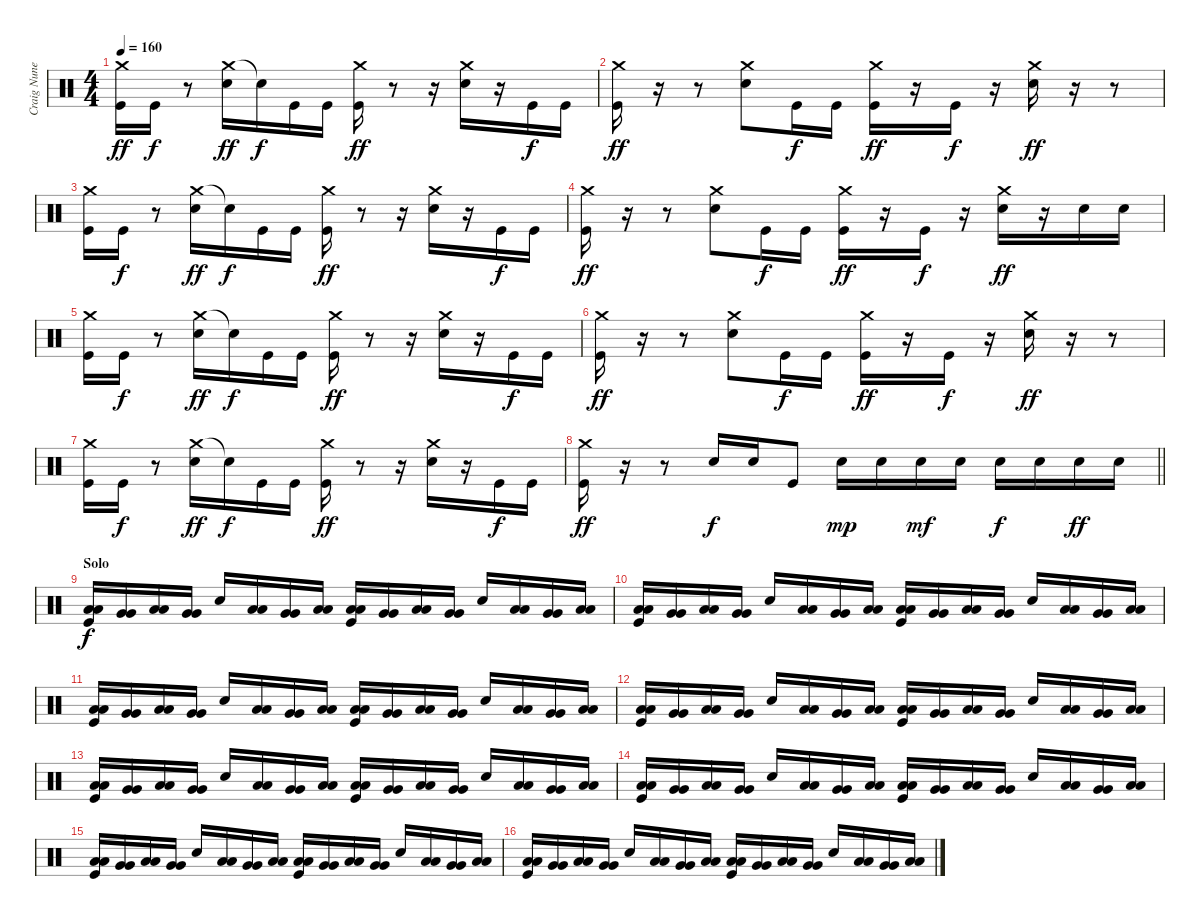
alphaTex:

\track ("Craig Nunenmacher" "Craig Nune") {instrument percussion}
\staff {score}
\articulation defaults
\ts (4 4)
\tempo 160
\clef neutral
\ks c
("Crash medium (hit)" "Kick (hit)").16{dy ff} "Kick (hit)".16{dy f} r.8 ("Crash medium (hit)" "Snare (hit) 2").16{dy ff} "Snare (hit)"{t}.16{dy f} "Kick (hit)".16 "Kick (hit)".16 ("Crash medium (hit)" "Kick (hit)").16{dy ff} r.8 r.16 ("Crash medium (hit)" "Snare (hit) 2").16 r.16 "Kick (hit)".16{dy f} "Kick (hit)".16 |
("Crash medium (hit)" "Kick (hit)").16{dy ff} r.16 r.8 ("Crash medium (hit)" "Snare (hit) 2").8 "Kick (hit)".16{dy f} "Kick (hit)".16 ("Crash medium (hit)" "Kick (hit)").16{dy ff} r.16 "Kick (hit)".16{dy f} r.16 ("Crash medium (hit)" "Snare (hit) 2").16{dy ff} r.16 r.8 |
("Crash medium (hit)" "Kick (hit)").16 "Kick (hit)".16{dy f} r.8 ("Crash medium (hit)" "Snare (hit) 2").16{dy ff} "Snare (hit)"{t}.16{dy f} "Kick (hit)".16 "Kick (hit)".16 ("Crash medium (hit)" "Kick (hit)").16{dy ff} r.8 r.16 ("Crash medium (hit)" "Snare (hit) 2").16 r.16 "Kick (hit)".16{dy f} "Kick (hit)".16 |
("Crash medium (hit)" "Kick (hit)").16{dy ff} r.16 r.8 ("Crash medium (hit)" "Snare (hit) 2").8 "Kick (hit)".16{dy f} "Kick (hit)".16 ("Crash medium (hit)" "Kick (hit)").16{dy ff} r.16 "Kick (hit)".16{dy f} r.16 ("Crash medium (hit)" "Snare (hit) 2").16{dy ff} r.16 "Snare (hit) 2".16 "Snare (hit) 2".16 |
("Crash medium (hit)" "Kick (hit)").16 "Kick (hit)".16{dy f} r.8 ("Crash medium (hit)" "Snare (hit) 2").16{dy ff} "Snare (hit)"{t}.16{dy f} "Kick (hit)".16 "Kick (hit)".16 ("Crash medium (hit)" "Kick (hit)").16{dy ff} r.8 r.16 ("Crash medium (hit)" "Snare (hit) 2").16 r.16 "Kick (hit)".16{dy f} "Kick (hit)".16 |
("Crash medium (hit)" "Kick (hit)").16{dy ff} r.16 r.8 ("Crash medium (hit)" "Snare (hit) 2").8 "Kick (hit)".16{dy f} "Kick (hit)".16 ("Crash medium (hit)" "Kick (hit)").16{dy ff} r.16 "Kick (hit)".16{dy f} r.16 ("Crash medium (hit)" "Snare (hit) 2").16{dy ff} r.16 r.8 |
("Crash medium (hit)" "Kick (hit)").16 "Kick (hit)".16{dy f} r.8 ("Crash medium (hit)" "Snare (hit) 2").16{dy ff} "Snare (hit)"{t}.16{dy f} "Kick (hit)".16 "Kick (hit)".16 ("Crash medium (hit)" "Kick (hit)").16{dy ff} r.8 r.16 ("Crash medium (hit)" "Snare (hit) 2").16 r.16 "Kick (hit)".16{dy f} "Kick (hit)".16 |
\barLineRight lightlight
("Crash medium (hit)" "Kick (hit)").16{dy ff} r.16 r.8 "Snare (hit) 2".16{dy f} "Snare (hit) 2".16 "Kick (hit)".8 "Snare (hit) 2".16{dy mp} "Snare (hit) 2".16 "Snare (hit) 2".16{dy mf} "Snare (hit) 2".16 "Snare (hit) 2".16{dy f} "Snare (hit) 2".16 "Snare (hit) 2".16{dy ff} "Snare (hit) 2".16 |
\section ("" "Solo")
("Low Tom (hit)" "Low Tom (hit)" "Kick (hit)").16{dy f} ("Very Low Tom (hit)" "Very Low Tom (hit)").16 ("Low Tom (hit)" "Low Tom (hit)").16 ("Very Low Tom (hit)" "Very Low Tom (hit)").16 "Snare (hit) 2".16 ("Low Tom (hit)" "Low Tom (hit)").16 ("Very Low Tom (hit)" "Very Low Tom (hit)").16 ("Low Tom (hit)" "Low Tom (hit)").16 ("Low Tom (hit)" "Low Tom (hit)" "Kick (hit)").16 ("Very Low Tom (hit)" "Very Low Tom (hit)").16 ("Low Tom (hit)" "Low Tom (hit)").16 ("Very Low Tom (hit)" "Very Low Tom (hit)").16 "Snare (hit) 2".16 ("Low Tom (hit)" "Low Tom (hit)").16 ("Very Low Tom (hit)" "Very Low Tom (hit)").16 ("Low Tom (hit)" "Low Tom (hit)").16 |
("Low Tom (hit)" "Low Tom (hit)" "Kick (hit)").16 ("Very Low Tom (hit)" "Very Low Tom (hit)").16 ("Low Tom (hit)" "Low Tom (hit)").16 ("Very Low Tom (hit)" "Very Low Tom (hit)").16 "Snare (hit) 2".16 ("Low Tom (hit)" "Low Tom (hit)").16 ("Very Low Tom (hit)" "Very Low Tom (hit)").16 ("Low Tom (hit)" "Low Tom (hit)").16 ("Low Tom (hit)" "Low Tom (hit)" "Kick (hit)").16 ("Very Low Tom (hit)" "Very Low Tom (hit)").16 ("Low Tom (hit)" "Low Tom (hit)").16 ("Very Low Tom (hit)" "Very Low Tom (hit)").16 "Snare (hit) 2".16 ("Low Tom (hit)" "Low Tom (hit)").16 ("Very Low Tom (hit)" "Very Low Tom (hit)").16 ("Low Tom (hit)" "Low Tom (hit)").16 |
("Low Tom (hit)" "Low Tom (hit)" "Kick (hit)").16 ("Very Low Tom (hit)" "Very Low Tom (hit)").16 ("Low Tom (hit)" "Low Tom (hit)").16 ("Very Low Tom (hit)" "Very Low Tom (hit)").16 "Snare (hit) 2".16 ("Low Tom (hit)" "Low Tom (hit)").16 ("Very Low Tom (hit)" "Very Low Tom (hit)").16 ("Low Tom (hit)" "Low Tom (hit)").16 ("Low Tom (hit)" "Low Tom (hit)" "Kick (hit)").16 ("Very Low Tom (hit)" "Very Low Tom (hit)").16 ("Low Tom (hit)" "Low Tom (hit)").16 ("Very Low Tom (hit)" "Very Low Tom (hit)").16 "Snare (hit) 2".16 ("Low Tom (hit)" "Low Tom (hit)").16 ("Very Low Tom (hit)" "Very Low Tom (hit)").16 ("Low Tom (hit)" "Low Tom (hit)").16 |
("Low Tom (hit)" "Low Tom (hit)" "Kick (hit)").16 ("Very Low Tom (hit)" "Very Low Tom (hit)").16 ("Low Tom (hit)" "Low Tom (hit)").16 ("Very Low Tom (hit)" "Very Low Tom (hit)").16 "Snare (hit) 2".16 ("Low Tom (hit)" "Low Tom (hit)").16 ("Very Low Tom (hit)" "Very Low Tom (hit)").16 ("Low Tom (hit)" "Low Tom (hit)").16 ("Low Tom (hit)" "Low Tom (hit)" "Kick (hit)").16 ("Very Low Tom (hit)" "Very Low Tom (hit)").16 ("Low Tom (hit)" "Low Tom (hit)").16 ("Very Low Tom (hit)" "Very Low Tom (hit)").16 "Snare (hit) 2".16 ("Low Tom (hit)" "Low Tom (hit)").16 ("Very Low Tom (hit)" "Very Low Tom (hit)").16 ("Low Tom (hit)" "Low Tom (hit)").16 |
("Low Tom (hit)" "Low Tom (hit)" "Kick (hit)").16 ("Very Low Tom (hit)" "Very Low Tom (hit)").16 ("Low Tom (hit)" "Low Tom (hit)").16 ("Very Low Tom (hit)" "Very Low Tom (hit)").16 "Snare (hit) 2".16 ("Low Tom (hit)" "Low Tom (hit)").16 ("Very Low Tom (hit)" "Very Low Tom (hit)").16 ("Low Tom (hit)" "Low Tom (hit)").16 ("Low Tom (hit)" "Low Tom (hit)" "Kick (hit)").16 ("Very Low Tom (hit)" "Very Low Tom (hit)").16 ("Low Tom (hit)" "Low Tom (hit)").16 ("Very Low Tom (hit)" "Very Low Tom (hit)").16 "Snare (hit) 2".16 ("Low Tom (hit)" "Low Tom (hit)").16 ("Very Low Tom (hit)" "Very Low Tom (hit)").16 ("Low Tom (hit)" "Low Tom (hit)").16 |
("Low Tom (hit)" "Low Tom (hit)" "Kick (hit)").16 ("Very Low Tom (hit)" "Very Low Tom (hit)").16 ("Low Tom (hit)" "Low Tom (hit)").16 ("Very Low Tom (hit)" "Very Low Tom (hit)").16 "Snare (hit) 2".16 ("Low Tom (hit)" "Low Tom (hit)").16 ("Very Low Tom (hit)" "Very Low Tom (hit)").16 ("Low Tom (hit)" "Low Tom (hit)").16 ("Low Tom (hit)" "Low Tom (hit)" "Kick (hit)").16 ("Very Low Tom (hit)" "Very Low Tom (hit)").16 ("Low Tom (hit)" "Low Tom (hit)").16 ("Very Low Tom (hit)" "Very Low Tom (hit)").16 "Snare (hit) 2".16 ("Low Tom (hit)" "Low Tom (hit)").16 ("Very Low Tom (hit)" "Very Low Tom (hit)").16 ("Low Tom (hit)" "Low Tom (hit)").16 |
("Low Tom (hit)" "Low Tom (hit)" "Kick (hit)").16 ("Very Low Tom (hit)" "Very Low Tom (hit)").16 ("Low Tom (hit)" "Low Tom (hit)").16 ("Very Low Tom (hit)" "Very Low Tom (hit)").16 "Snare (hit) 2".16 ("Low Tom (hit)" "Low Tom (hit)").16 ("Very Low Tom (hit)" "Very Low Tom (hit)").16 ("Low Tom (hit)" "Low Tom (hit)").16 ("Low Tom (hit)" "Low Tom (hit)" "Kick (hit)").16 ("Very Low Tom (hit)" "Very Low Tom (hit)").16 ("Low Tom (hit)" "Low Tom (hit)").16 ("Very Low Tom (hit)" "Very Low Tom (hit)").16 "Snare (hit) 2".16 ("Low Tom (hit)" "Low Tom (hit)").16 ("Very Low Tom (hit)" "Very Low Tom (hit)").16 ("Low Tom (hit)" "Low Tom (hit)").16 |
("Low Tom (hit)" "Low Tom (hit)" "Kick (hit)").16 ("Very Low Tom (hit)" "Very Low Tom (hit)").16 ("Low Tom (hit)" "Low Tom (hit)").16 ("Very Low Tom (hit)" "Very Low Tom (hit)").16 "Snare (hit) 2".16 ("Low Tom (hit)" "Low Tom (hit)").16 ("Very Low Tom (hit)" "Very Low Tom (hit)").16 ("Low Tom (hit)" "Low Tom (hit)").16 ("Low Tom (hit)" "Low Tom (hit)" "Kick (hit)").16 ("Very Low Tom (hit)" "Very Low Tom (hit)").16 ("Low Tom (hit)" "Low Tom (hit)").16 ("Very Low Tom (hit)" "Very Low Tom (hit)").16 "Snare (hit) 2".16 ("Low Tom (hit)" "Low Tom (hit)").16 ("Very Low Tom (hit)" "Very Low Tom (hit)").16 ("Low Tom (hit)" "Low Tom (hit)").16
